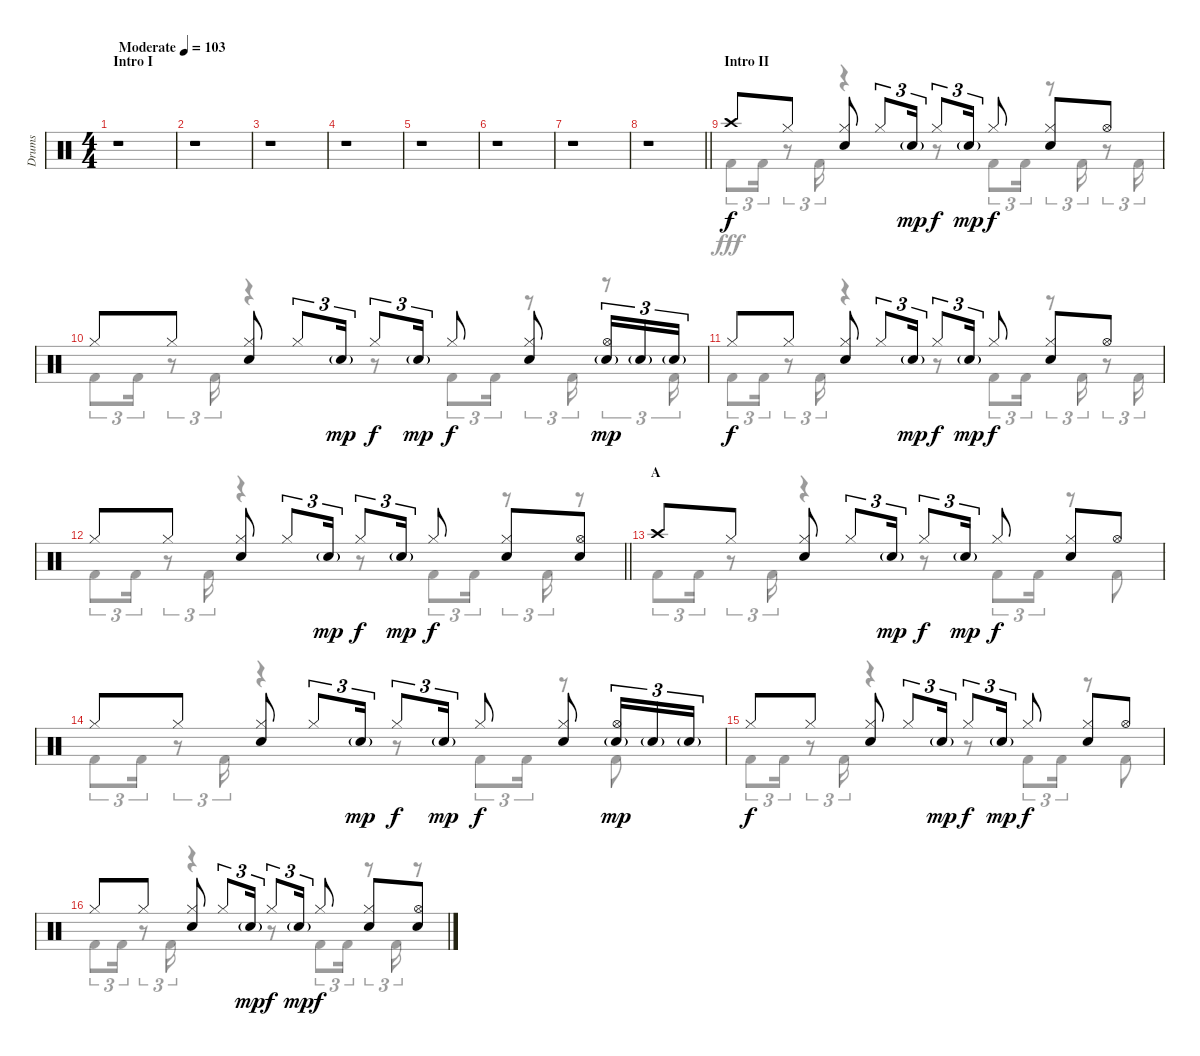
\track ("Drums" "Drums") {instrument percussion}
\staff {score}
\articulation defaults
\voice
\ts (4 4)
\section ("" "Intro I")
\tempo (103 "Moderate")
\clef neutral
\ks c
r.1{dy f} |
r.1 |
r.1 |
r.1 |
r.1 |
r.1 |
r.1 |
\barLineRight lightlight
r.1 |
\section ("" "Intro II")
"Crash high (hit)".8 "Hi-Hat (closed)".8 ("Hi-Hat (closed)" "Snare (hit) 2").8 "Hi-Hat (closed)".8{tu (3 2)} "Snare (hit) 2"{g}.16{tu (3 2) dy mp} "Hi-Hat (closed)".8{tu (3 2) dy f} "Snare (hit) 2"{g}.16{tu (3 2) dy mp} "Hi-Hat (closed)".8{dy f} ("Hi-Hat (closed)" "Snare (hit) 2").8 "Hi-Hat (open)".8 |
"Hi-Hat (closed)".8 "Hi-Hat (closed)".8 ("Hi-Hat (closed)" "Snare (hit) 2").8 "Hi-Hat (closed)".8{tu (3 2)} "Snare (hit) 2"{g}.16{tu (3 2) dy mp} "Hi-Hat (closed)".8{tu (3 2) dy f} "Snare (hit) 2"{g}.16{tu (3 2) dy mp} "Hi-Hat (closed)".8{dy f} ("Hi-Hat (closed)" "Snare (hit) 2").8 ("Hi-Hat (open)" "Snare (hit) 2"{g}).16{tu (3 2) dy mp} "Snare (hit) 2"{g}.16{tu (3 2)} "Snare (hit) 2"{g}.16{tu (3 2)} |
"Hi-Hat (closed)".8{dy f} "Hi-Hat (closed)".8 ("Hi-Hat (closed)" "Snare (hit) 2").8 "Hi-Hat (closed)".8{tu (3 2)} "Snare (hit) 2"{g}.16{tu (3 2) dy mp} "Hi-Hat (closed)".8{tu (3 2) dy f} "Snare (hit) 2"{g}.16{tu (3 2) dy mp} "Hi-Hat (closed)".8{dy f} ("Hi-Hat (closed)" "Snare (hit) 2").8 "Hi-Hat (open)".8 |
\barLineRight lightlight "Hi-Hat (closed)".8 "Hi-Hat (closed)".8
("Hi-Hat (closed)" "Snare (hit) 2").8 "Hi-Hat (closed)".8{tu (3 2)} "Snare (hit) 2"{g}.16{tu (3 2) dy mp} "Hi-Hat (closed)".8{tu (3 2) dy f} "Snare (hit) 2"{g}.16{tu (3 2) dy mp} "Hi-Hat (closed)".8{dy f} ("Hi-Hat (closed)" "Snare (hit) 2").8 ("Hi-Hat (open)" "Snare (hit) 2").8 |
\section ("" "A")
"Crash high (hit)".8 "Hi-Hat (closed)".8 ("Hi-Hat (closed)" "Snare (hit) 2").8 "Hi-Hat (closed)".8{tu (3 2)} "Snare (hit) 2"{g}.16{tu (3 2) dy mp} "Hi-Hat (closed)".8{tu (3 2) dy f} "Snare (hit) 2"{g}.16{tu (3 2) dy mp} "Hi-Hat (closed)".8{dy f} ("Hi-Hat (closed)" "Snare (hit) 2").8 "Hi-Hat (open)".8 |
"Hi-Hat (closed)".8 "Hi-Hat (closed)".8 ("Hi-Hat (closed)" "Snare (hit) 2").8 "Hi-Hat (closed)".8{tu (3 2)} "Snare (hit) 2"{g}.16{tu (3 2) dy mp} "Hi-Hat (closed)".8{tu (3 2) dy f} "Snare (hit) 2"{g}.16{tu (3 2) dy mp} "Hi-Hat (closed)".8{dy f} ("Hi-Hat (closed)" "Snare (hit) 2").8 ("Hi-Hat (open)" "Snare (hit) 2"{g}).16{tu (3 2) dy mp} "Snare (hit) 2"{g}.16{tu (3 2)} "Snare (hit) 2"{g}.16{tu (3 2)} |
"Hi-Hat (closed)".8{dy f} "Hi-Hat (closed)".8 ("Hi-Hat (closed)" "Snare (hit) 2").8 "Hi-Hat (closed)".8{tu (3 2)} "Snare (hit) 2"{g}.16{tu (3 2) dy mp} "Hi-Hat (closed)".8{tu (3 2) dy f} "Snare (hit) 2"{g}.16{tu (3 2) dy mp} "Hi-Hat (closed)".8{dy f} ("Hi-Hat (closed)" "Snare (hit) 2").8 "Hi-Hat (open)".8 |
"Hi-Hat (closed)".8 "Hi-Hat (closed)".8 ("Hi-Hat (closed)" "Snare (hit) 2").8 "Hi-Hat (closed)".8{tu (3 2)} "Snare (hit) 2"{g}.16{tu (3 2) dy mp} "Hi-Hat (closed)".8{tu (3 2) dy f} "Snare (hit) 2"{g}.16{tu (3 2) dy mp} "Hi-Hat (closed)".8{dy f} ("Hi-Hat (closed)" "Snare (hit) 2").8 ("Hi-Hat (open)" "Snare (hit) 2").8
\voice
\clef neutral
\ottava regular
\simile none
\ks c
r.1{dy fff} |
r.1 |
r.1 |
r.1 |
r.1 |
r.1 |
r.1 |
\barLineRight lightlight
r.1 |
"Kick (hit) 2".8{tu (3 2)} "Kick (hit) 2".16{tu (3 2)} r.8{tu (3 2)} "Kick (hit) 2".16{tu (3 2)} r.4 r.8 "Kick (hit) 2".8{tu (3 2)} "Kick (hit) 2".16{tu (3 2)} r.8{tu (3 2)} "Kick (hit) 2".16{tu (3 2)} r.8{tu (3 2)} "Kick (hit) 2".16{tu (3 2)} |
"Kick (hit) 2".8{tu (3 2)} "Kick (hit) 2".16{tu (3 2)} r.8{tu (3 2)} "Kick (hit) 2".16{tu (3 2)} r.4 r.8 "Kick (hit) 2".8{tu (3 2)} "Kick (hit) 2".16{tu (3 2)} r.8{tu (3 2)} "Kick (hit) 2".16{tu (3 2)} r.8{tu (3 2)} "Kick (hit) 2".16{tu (3 2)} |
"Kick (hit) 2".8{tu (3 2)} "Kick (hit) 2".16{tu (3 2)} r.8{tu (3 2)} "Kick (hit) 2".16{tu (3 2)} r.4 r.8 "Kick (hit) 2".8{tu (3 2)} "Kick (hit) 2".16{tu (3 2)} r.8{tu (3 2)} "Kick (hit) 2".16{tu (3 2)} r.8{tu (3 2)} "Kick (hit) 2".16{tu (3 2)} |
\barLineRight lightlight "Kick (hit) 2".8{tu (3 2)} "Kick (hit) 2".16{tu (3 2)}
r.8{tu (3 2)} "Kick (hit) 2".16{tu (3 2)} r.4 r.8 "Kick (hit) 2".8{tu (3 2)} "Kick (hit) 2".16{tu (3 2)} r.8{tu (3 2)} "Kick (hit) 2".16{tu (3 2)} r.8 |
"Kick (hit) 2".8{tu (3 2)} "Kick (hit) 2".16{tu (3 2)} r.8{tu (3 2)} "Kick (hit) 2".16{tu (3 2)} r.4 r.8 "Kick (hit) 2".8{tu (3 2)} "Kick (hit) 2".16{tu (3 2)} r.8 "Kick (hit) 2".8 |
"Kick (hit) 2".8{tu (3 2)} "Kick (hit) 2".16{tu (3 2)} r.8{tu (3 2)} "Kick (hit) 2".16{tu (3 2)} r.4 r.8 "Kick (hit) 2".8{tu (3 2)} "Kick (hit) 2".16{tu (3 2)} r.8 "Kick (hit) 2".8 |
"Kick (hit) 2".8{tu (3 2)} "Kick (hit) 2".16{tu (3 2)} r.8{tu (3 2)} "Kick (hit) 2".16{tu (3 2)} r.4 r.8 "Kick (hit) 2".8{tu (3 2)} "Kick (hit) 2".16{tu (3 2)} r.8 "Kick (hit) 2".8 |
"Kick (hit) 2".8{tu (3 2)} "Kick (hit) 2".16{tu (3 2)} r.8{tu (3 2)} "Kick (hit) 2".16{tu (3 2)} r.4 r.8 "Kick (hit) 2".8{tu (3 2)} "Kick (hit) 2".16{tu (3 2)} r.8{tu (3 2)} "Kick (hit) 2".16{tu (3 2)} r.8
